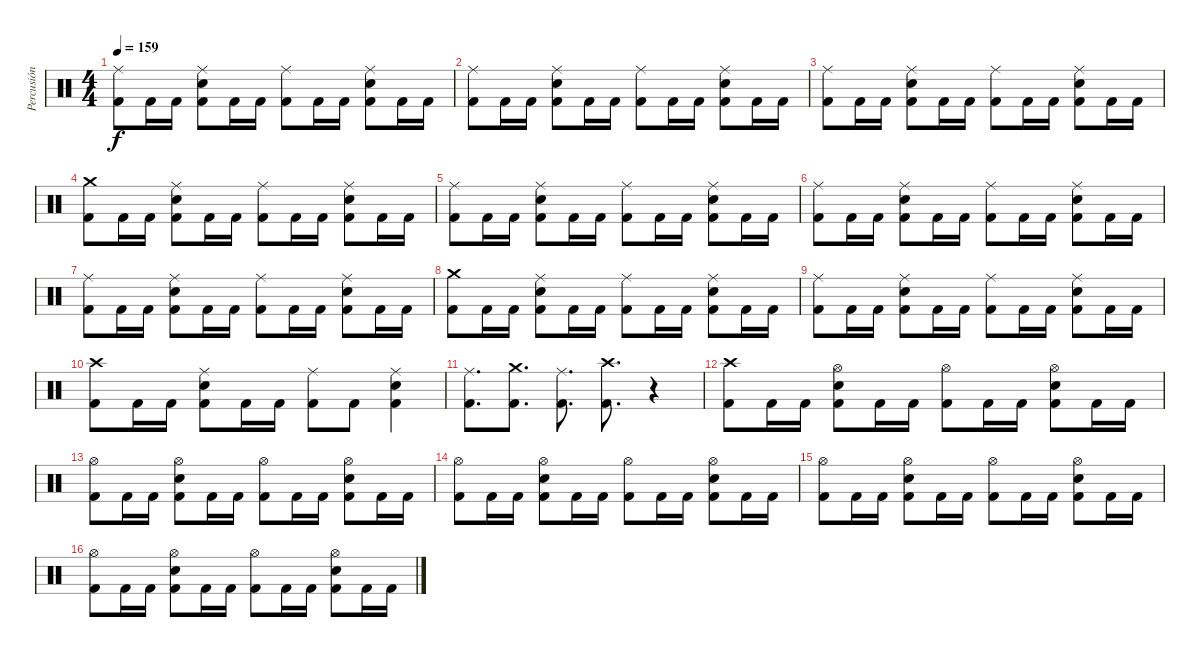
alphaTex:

\track ("Percusión" "Percusión") {instrument percussion}
\staff {score}
\articulation defaults
\ts (4 4)
\tempo 159
\clef neutral
\ks c
("Ride (middle)" "Kick (hit) 2").8{dy f} "Kick (hit) 2".16 "Kick (hit) 2".16 ("Ride (middle)" "Electric Snare (hit)" "Kick (hit) 2").8 "Kick (hit) 2".16 "Kick (hit) 2".16 ("Ride (middle)" "Kick (hit) 2").8 "Kick (hit) 2".16 "Kick (hit) 2".16 ("Ride (middle)" "Electric Snare (hit)" "Kick (hit) 2").8 "Kick (hit) 2".16 "Kick (hit) 2".16 |
("Ride (middle)" "Kick (hit) 2").8 "Kick (hit) 2".16 "Kick (hit) 2".16 ("Ride (middle)" "Electric Snare (hit)" "Kick (hit) 2").8 "Kick (hit) 2".16 "Kick (hit) 2".16 ("Ride (middle)" "Kick (hit) 2").8 "Kick (hit) 2".16 "Kick (hit) 2".16 ("Ride (middle)" "Electric Snare (hit)" "Kick (hit) 2").8 "Kick (hit) 2".16 "Kick (hit) 2".16 |
("Ride (middle)" "Kick (hit) 2").8 "Kick (hit) 2".16 "Kick (hit) 2".16 ("Ride (middle)" "Electric Snare (hit)" "Kick (hit) 2").8 "Kick (hit) 2".16 "Kick (hit) 2".16 ("Ride (middle)" "Kick (hit) 2").8 "Kick (hit) 2".16 "Kick (hit) 2".16 ("Ride (middle)" "Electric Snare (hit)" "Kick (hit) 2").8 "Kick (hit) 2".16 "Kick (hit) 2".16 |
("Crash medium (hit)" "Kick (hit) 2").8 "Kick (hit) 2".16 "Kick (hit) 2".16 ("Ride (middle)" "Electric Snare (hit)" "Kick (hit) 2").8 "Kick (hit) 2".16 "Kick (hit) 2".16 ("Ride (middle)" "Kick (hit) 2").8 "Kick (hit) 2".16 "Kick (hit) 2".16 ("Ride (middle)" "Electric Snare (hit)" "Kick (hit) 2").8 "Kick (hit) 2".16 "Kick (hit) 2".16 |
("Ride (middle)" "Kick (hit) 2").8 "Kick (hit) 2".16 "Kick (hit) 2".16 ("Ride (middle)" "Electric Snare (hit)" "Kick (hit) 2").8 "Kick (hit) 2".16 "Kick (hit) 2".16 ("Ride (middle)" "Kick (hit) 2").8 "Kick (hit) 2".16 "Kick (hit) 2".16 ("Ride (middle)" "Electric Snare (hit)" "Kick (hit) 2").8 "Kick (hit) 2".16 "Kick (hit) 2".16 |
("Ride (middle)" "Kick (hit) 2").8 "Kick (hit) 2".16 "Kick (hit) 2".16 ("Ride (middle)" "Electric Snare (hit)" "Kick (hit) 2").8 "Kick (hit) 2".16 "Kick (hit) 2".16 ("Ride (middle)" "Kick (hit) 2").8 "Kick (hit) 2".16 "Kick (hit) 2".16 ("Ride (middle)" "Electric Snare (hit)" "Kick (hit) 2").8 "Kick (hit) 2".16 "Kick (hit) 2".16 |
("Ride (middle)" "Kick (hit) 2").8 "Kick (hit) 2".16 "Kick (hit) 2".16 ("Ride (middle)" "Electric Snare (hit)" "Kick (hit) 2").8 "Kick (hit) 2".16 "Kick (hit) 2".16 ("Ride (middle)" "Kick (hit) 2").8 "Kick (hit) 2".16 "Kick (hit) 2".16 ("Ride (middle)" "Electric Snare (hit)" "Kick (hit) 2").8 "Kick (hit) 2".16 "Kick (hit) 2".16 |
("Crash medium (hit)" "Kick (hit) 2").8 "Kick (hit) 2".16 "Kick (hit) 2".16 ("Ride (middle)" "Electric Snare (hit)" "Kick (hit) 2").8 "Kick (hit) 2".16 "Kick (hit) 2".16 ("Ride (middle)" "Kick (hit) 2").8 "Kick (hit) 2".16 "Kick (hit) 2".16 ("Ride (middle)" "Electric Snare (hit)" "Kick (hit) 2").8 "Kick (hit) 2".16 "Kick (hit) 2".16 |
("Ride (middle)" "Kick (hit) 2").8 "Kick (hit) 2".16 "Kick (hit) 2".16 ("Ride (middle)" "Electric Snare (hit)" "Kick (hit) 2").8 "Kick (hit) 2".16 "Kick (hit) 2".16 ("Ride (middle)" "Kick (hit) 2").8 "Kick (hit) 2".16 "Kick (hit) 2".16 ("Ride (middle)" "Electric Snare (hit)" "Kick (hit) 2").8 "Kick (hit) 2".16 "Kick (hit) 2".16 |
("Crash high (hit)" "Kick (hit) 2").8 "Kick (hit) 2".16 "Kick (hit) 2".16 ("Ride (middle)" "Electric Snare (hit)" "Kick (hit) 2").8 "Kick (hit) 2".16 "Kick (hit) 2".16 ("Ride (middle)" "Kick (hit) 2").8 "Kick (hit) 2".8 ("Ride (middle)" "Electric Snare (hit)" "Kick (hit) 2").4 |
("Ride (middle)" "Kick (hit) 2").8{d} ("Crash medium (hit)" "Kick (hit) 2").8{d} ("Ride (middle)" "Kick (hit) 2").8{d} ("Crash high (hit)" "Kick (hit) 2").8{d} r.4 |
("Crash high (hit)" "Kick (hit) 2").8 "Kick (hit) 2".16 "Kick (hit) 2".16 ("Hi-Hat (open)" "Electric Snare (hit)" "Kick (hit) 2").8 "Kick (hit) 2".16 "Kick (hit) 2".16 ("Hi-Hat (open)" "Kick (hit) 2").8 "Kick (hit) 2".16 "Kick (hit) 2".16 ("Hi-Hat (open)" "Electric Snare (hit)" "Kick (hit) 2").8 "Kick (hit) 2".16 "Kick (hit) 2".16 |
("Hi-Hat (open)" "Kick (hit) 2").8 "Kick (hit) 2".16 "Kick (hit) 2".16 ("Hi-Hat (open)" "Electric Snare (hit)" "Kick (hit) 2").8 "Kick (hit) 2".16 "Kick (hit) 2".16 ("Hi-Hat (open)" "Kick (hit) 2").8 "Kick (hit) 2".16 "Kick (hit) 2".16 ("Hi-Hat (open)" "Electric Snare (hit)" "Kick (hit) 2").8 "Kick (hit) 2".16 "Kick (hit) 2".16 |
("Hi-Hat (open)" "Kick (hit) 2").8 "Kick (hit) 2".16 "Kick (hit) 2".16 ("Hi-Hat (open)" "Electric Snare (hit)" "Kick (hit) 2").8 "Kick (hit) 2".16 "Kick (hit) 2".16 ("Hi-Hat (open)" "Kick (hit) 2").8 "Kick (hit) 2".16 "Kick (hit) 2".16 ("Hi-Hat (open)" "Electric Snare (hit)" "Kick (hit) 2").8 "Kick (hit) 2".16 "Kick (hit) 2".16 |
("Hi-Hat (open)" "Kick (hit) 2").8 "Kick (hit) 2".16 "Kick (hit) 2".16 ("Hi-Hat (open)" "Electric Snare (hit)" "Kick (hit) 2").8 "Kick (hit) 2".16 "Kick (hit) 2".16 ("Hi-Hat (open)" "Kick (hit) 2").8 "Kick (hit) 2".16 "Kick (hit) 2".16 ("Hi-Hat (open)" "Electric Snare (hit)" "Kick (hit) 2").8 "Kick (hit) 2".16 "Kick (hit) 2".16 |
("Hi-Hat (open)" "Kick (hit) 2").8 "Kick (hit) 2".16 "Kick (hit) 2".16 ("Hi-Hat (open)" "Electric Snare (hit)" "Kick (hit) 2").8 "Kick (hit) 2".16 "Kick (hit) 2".16 ("Hi-Hat (open)" "Kick (hit) 2").8 "Kick (hit) 2".16 "Kick (hit) 2".16 ("Hi-Hat (open)" "Electric Snare (hit)" "Kick (hit) 2").8 "Kick (hit) 2".16 "Kick (hit) 2".16
